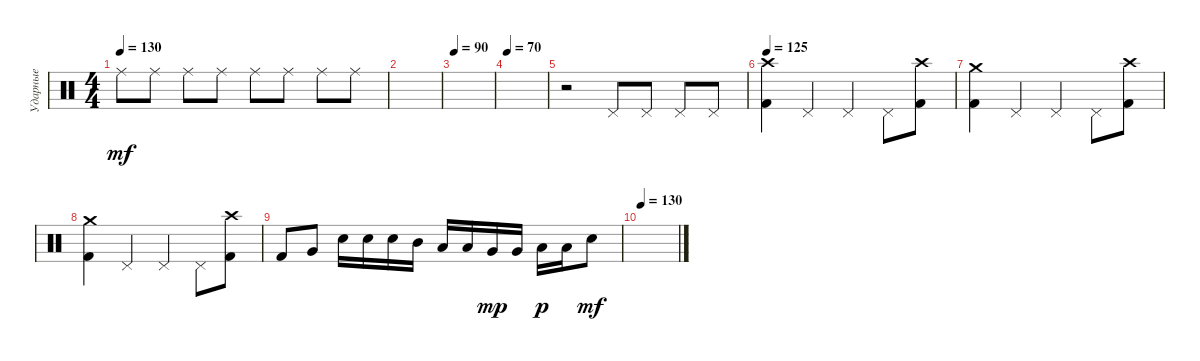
\track ("Ударные" "Ударные") {instrument percussion}
\staff {score}
\articulation defaults
\ts (4 4)
\tempo 130
\clef neutral
\ks c "Ride (middle)".8{dy mf} "Ride (middle)".8 "Ride (middle)".8 "Ride (middle)".8 "Ride (middle)".8 "Ride (middle)".8 "Ride (middle)".8 "Ride (middle)".8
|
|
\tempo 90
|
\tempo 70
|
r.2 "Pedal Hi-Hat (hit)".8 "Pedal Hi-Hat (hit)".8 "Pedal Hi-Hat (hit)".8 "Pedal Hi-Hat (hit)".8 |
\tempo 125
("Crash high (hit)" "Kick (hit) 2").4 "Pedal Hi-Hat (hit)".4 "Pedal Hi-Hat (hit)".4 "Pedal Hi-Hat (hit)".8 ("Crash high (hit)" "Kick (hit) 2").8 |
("Crash medium (hit)" "Kick (hit) 2").4 "Pedal Hi-Hat (hit)".4 "Pedal Hi-Hat (hit)".4 "Pedal Hi-Hat (hit)".8 ("Crash high (hit)" "Kick (hit) 2").8 |
("Crash medium (hit)" "Kick (hit) 2").4 "Pedal Hi-Hat (hit)".4 "Pedal Hi-Hat (hit)".4 "Pedal Hi-Hat (hit)".8 ("Crash high (hit)" "Kick (hit) 2").8 |
"Kick (hit) 2".8 "Very Low Tom (hit)".8 "Electric Snare (hit)".16 "Electric Snare (hit)".16 "Electric Snare (hit)".16 "Mid Tom (hit)".16 "Low Tom (hit)".16 "Low Tom (hit)".16 "Very Low Tom (hit)".16{dy mp} "Very Low Tom (hit)".16 "Low Floor Tom (hit)".16{dy p} "Low Floor Tom (hit)".16 "Electric Snare (hit)".8{dy mf} |
\tempo 130
